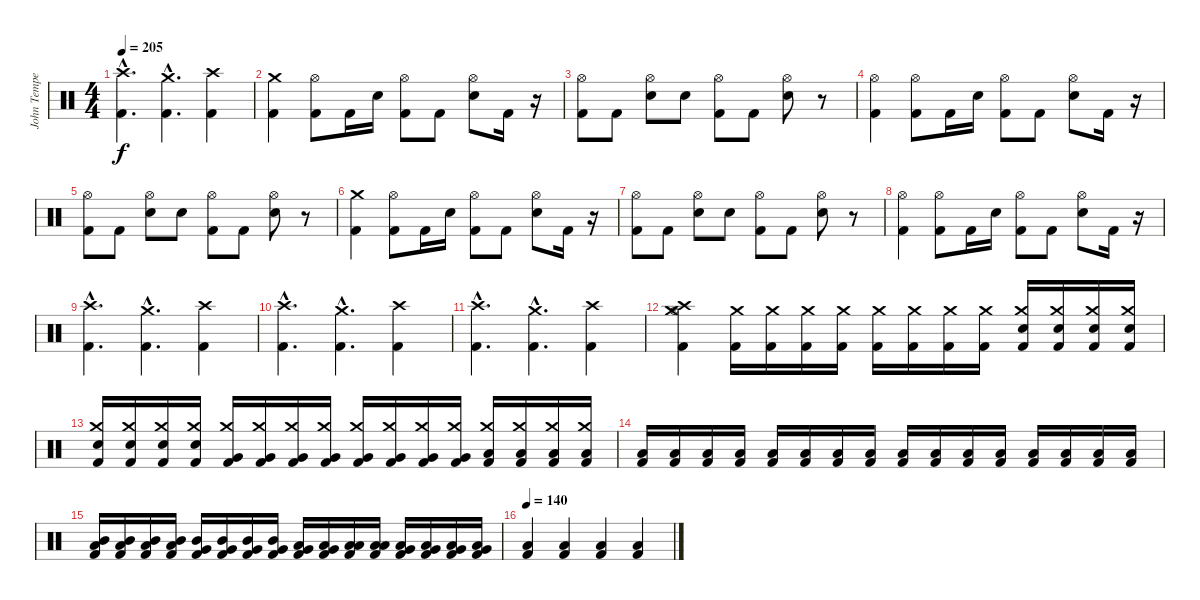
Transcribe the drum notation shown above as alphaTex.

\track ("John Tempesta" "John Tempe") {instrument percussion}
\staff {score}
\articulation defaults
\ts (4 4)
\tempo 205
\clef neutral
\ks c
("Kick (hit) 2"{hac} "Crash high (hit)"{hac}).4{d dy f} ("Kick (hit) 2"{hac} "Crash medium (hit)"{hac}).4{d} ("Kick (hit) 2" "Crash high (hit)").4 |
("Kick (hit) 2" "Crash medium (hit)").4 ("Kick (hit) 2" "Hi-Hat (open)").8 "Kick (hit) 2".16 "Snare (hit) 2".16 ("Hi-Hat (open)" "Kick (hit) 2").8 "Kick (hit) 2".8 ("Snare (hit) 2" "Hi-Hat (open)").8 "Kick (hit) 2".16 r.16 |
("Kick (hit) 2" "Hi-Hat (open)").8 "Kick (hit) 2".8 ("Snare (hit) 2" "Hi-Hat (open)").8 "Snare (hit) 2".8 ("Kick (hit) 2" "Hi-Hat (open)").8 "Kick (hit) 2".8 ("Snare (hit) 2" "Hi-Hat (open)").8 r.8 |
("Kick (hit) 2" "Hi-Hat (open)").4 ("Kick (hit) 2" "Hi-Hat (open)").8 "Kick (hit) 2".16 "Snare (hit) 2".16 ("Hi-Hat (open)" "Kick (hit) 2").8 "Kick (hit) 2".8 ("Snare (hit) 2" "Hi-Hat (open)").8 "Kick (hit) 2".16 r.16 |
("Kick (hit) 2" "Hi-Hat (open)").8 "Kick (hit) 2".8 ("Snare (hit) 2" "Hi-Hat (open)").8 "Snare (hit) 2".8 ("Kick (hit) 2" "Hi-Hat (open)").8 "Kick (hit) 2".8 ("Snare (hit) 2" "Hi-Hat (open)").8 r.8 |
("Kick (hit) 2" "Crash medium (hit)").4 ("Kick (hit) 2" "Hi-Hat (open)").8 "Kick (hit) 2".16 "Snare (hit) 2".16 ("Hi-Hat (open)" "Kick (hit) 2").8 "Kick (hit) 2".8 ("Snare (hit) 2" "Hi-Hat (open)").8 "Kick (hit) 2".16 r.16 |
("Kick (hit) 2" "Hi-Hat (open)").8 "Kick (hit) 2".8 ("Snare (hit) 2" "Hi-Hat (open)").8 "Snare (hit) 2".8 ("Kick (hit) 2" "Hi-Hat (open)").8 "Kick (hit) 2".8 ("Snare (hit) 2" "Hi-Hat (open)").8 r.8 |
("Kick (hit) 2" "Hi-Hat (open)").4 ("Kick (hit) 2" "Hi-Hat (open)").8 "Kick (hit) 2".16 "Snare (hit) 2".16 ("Hi-Hat (open)" "Kick (hit) 2").8 "Kick (hit) 2".8 ("Snare (hit) 2" "Hi-Hat (open)").8 "Kick (hit) 2".16 r.16 |
("Kick (hit) 2"{hac} "Crash high (hit)"{hac}).4{d} ("Kick (hit) 2"{hac} "Crash medium (hit)"{hac}).4{d} ("Kick (hit) 2" "Crash high (hit)").4 |
("Kick (hit) 2"{hac} "Crash high (hit)"{hac}).4{d} ("Kick (hit) 2"{hac} "Crash medium (hit)"{hac}).4{d} ("Kick (hit) 2" "Crash high (hit)").4 |
("Kick (hit) 2"{hac} "Crash high (hit)"{hac}).4{d} ("Kick (hit) 2"{hac} "Crash medium (hit)"{hac}).4{d} ("Kick (hit) 2" "Crash high (hit)").4 |
("Kick (hit) 2" "Crash medium (hit)" "Crash high (hit)" "Hi-Hat (open)").4 ("Kick (hit) 2" "Crash medium (hit)").16 ("Kick (hit) 2" "Crash medium (hit)").16 ("Kick (hit) 2" "Crash medium (hit)").16 ("Kick (hit) 2" "Crash medium (hit)").16 ("Kick (hit) 2" "Crash medium (hit)").16 ("Kick (hit) 2" "Crash medium (hit)").16 ("Kick (hit) 2" "Crash medium (hit)").16 ("Kick (hit) 2" "Crash medium (hit)").16 ("Kick (hit) 2" "Crash medium (hit)" "Snare (hit) 2").16 ("Kick (hit) 2" "Crash medium (hit)" "Snare (hit) 2").16 ("Kick (hit) 2" "Crash medium (hit)" "Snare (hit) 2").16 ("Kick (hit) 2" "Crash medium (hit)" "Snare (hit) 2").16 |
("Kick (hit) 2" "Crash medium (hit)" "Snare (hit) 2").16 ("Kick (hit) 2" "Crash medium (hit)" "Snare (hit) 2").16 ("Kick (hit) 2" "Crash medium (hit)" "Snare (hit) 2").16 ("Kick (hit) 2" "Crash medium (hit)" "Snare (hit) 2").16 ("Kick (hit) 2" "Crash medium (hit)" "Very Low Tom (hit)").16 ("Kick (hit) 2" "Crash medium (hit)" "Very Low Tom (hit)").16 ("Kick (hit) 2" "Crash medium (hit)" "Very Low Tom (hit)").16 ("Kick (hit) 2" "Crash medium (hit)" "Very Low Tom (hit)").16 ("Kick (hit) 2" "Crash medium (hit)" "Very Low Tom (hit)").16 ("Kick (hit) 2" "Crash medium (hit)" "Very Low Tom (hit)").16 ("Kick (hit) 2" "Crash medium (hit)" "Very Low Tom (hit)").16 ("Kick (hit) 2" "Crash medium (hit)" "Very Low Tom (hit)").16 ("Kick (hit) 2" "Crash medium (hit)" "Low Floor Tom (hit)").16 ("Kick (hit) 2" "Crash medium (hit)" "Low Floor Tom (hit)").16 ("Kick (hit) 2" "Crash medium (hit)" "Low Floor Tom (hit)").16 ("Kick (hit) 2" "Crash medium (hit)" "Low Floor Tom (hit)").16 |
("Kick (hit) 2" "Low Floor Tom (hit)").16 ("Kick (hit) 2" "Low Floor Tom (hit)").16 ("Kick (hit) 2" "Low Floor Tom (hit)").16 ("Kick (hit) 2" "Low Floor Tom (hit)").16 ("Kick (hit) 2" "Low Floor Tom (hit)").16 ("Kick (hit) 2" "Low Floor Tom (hit)").16 ("Kick (hit) 2" "Low Floor Tom (hit)").16 ("Kick (hit) 2" "Low Floor Tom (hit)").16 ("Kick (hit) 2" "Low Floor Tom (hit)").16 ("Kick (hit) 2" "Low Floor Tom (hit)").16 ("Kick (hit) 2" "Low Floor Tom (hit)").16 ("Kick (hit) 2" "Low Floor Tom (hit)").16 ("Kick (hit) 2" "Low Floor Tom (hit)").16 ("Kick (hit) 2" "Low Floor Tom (hit)").16 ("Kick (hit) 2" "Low Floor Tom (hit)").16 ("Kick (hit) 2" "Low Floor Tom (hit)").16 |
("Kick (hit) 2" "Mid Tom (hit)" "Low Tom (hit)").16 ("Kick (hit) 2" "Mid Tom (hit)" "Low Tom (hit)").16 ("Kick (hit) 2" "Mid Tom (hit)" "Low Tom (hit)").16 ("Kick (hit) 2" "Mid Tom (hit)" "Low Tom (hit)").16 ("Kick (hit) 2" "Mid Tom (hit)" "Very Low Tom (hit)").16 ("Kick (hit) 2" "Mid Tom (hit)" "Very Low Tom (hit)").16 ("Kick (hit) 2" "Mid Tom (hit)" "Very Low Tom (hit)").16 ("Kick (hit) 2" "Mid Tom (hit)" "Very Low Tom (hit)").16 ("Kick (hit) 2" "Low Tom (hit)" "Very Low Tom (hit)").16 ("Kick (hit) 2" "Low Tom (hit)" "Very Low Tom (hit)").16 ("Kick (hit) 2" "Low Tom (hit)" "Low Floor Tom (hit)").16 ("Kick (hit) 2" "Low Tom (hit)" "Low Floor Tom (hit)").16 ("Kick (hit) 2" "Very Low Tom (hit)" "Low Floor Tom (hit)").16 ("Kick (hit) 2" "Very Low Tom (hit)" "Low Floor Tom (hit)").16 ("Kick (hit) 2" "Very Low Tom (hit)" "Low Floor Tom (hit)").16 ("Kick (hit) 2" "Very Low Tom (hit)" "Low Floor Tom (hit)").16 |
\tempo 140
("Kick (hit) 2" "Low Floor Tom (hit)").4 ("Kick (hit) 2" "Low Floor Tom (hit)").4 ("Kick (hit) 2" "Low Floor Tom (hit)").4 ("Kick (hit) 2" "Low Floor Tom (hit)").4
